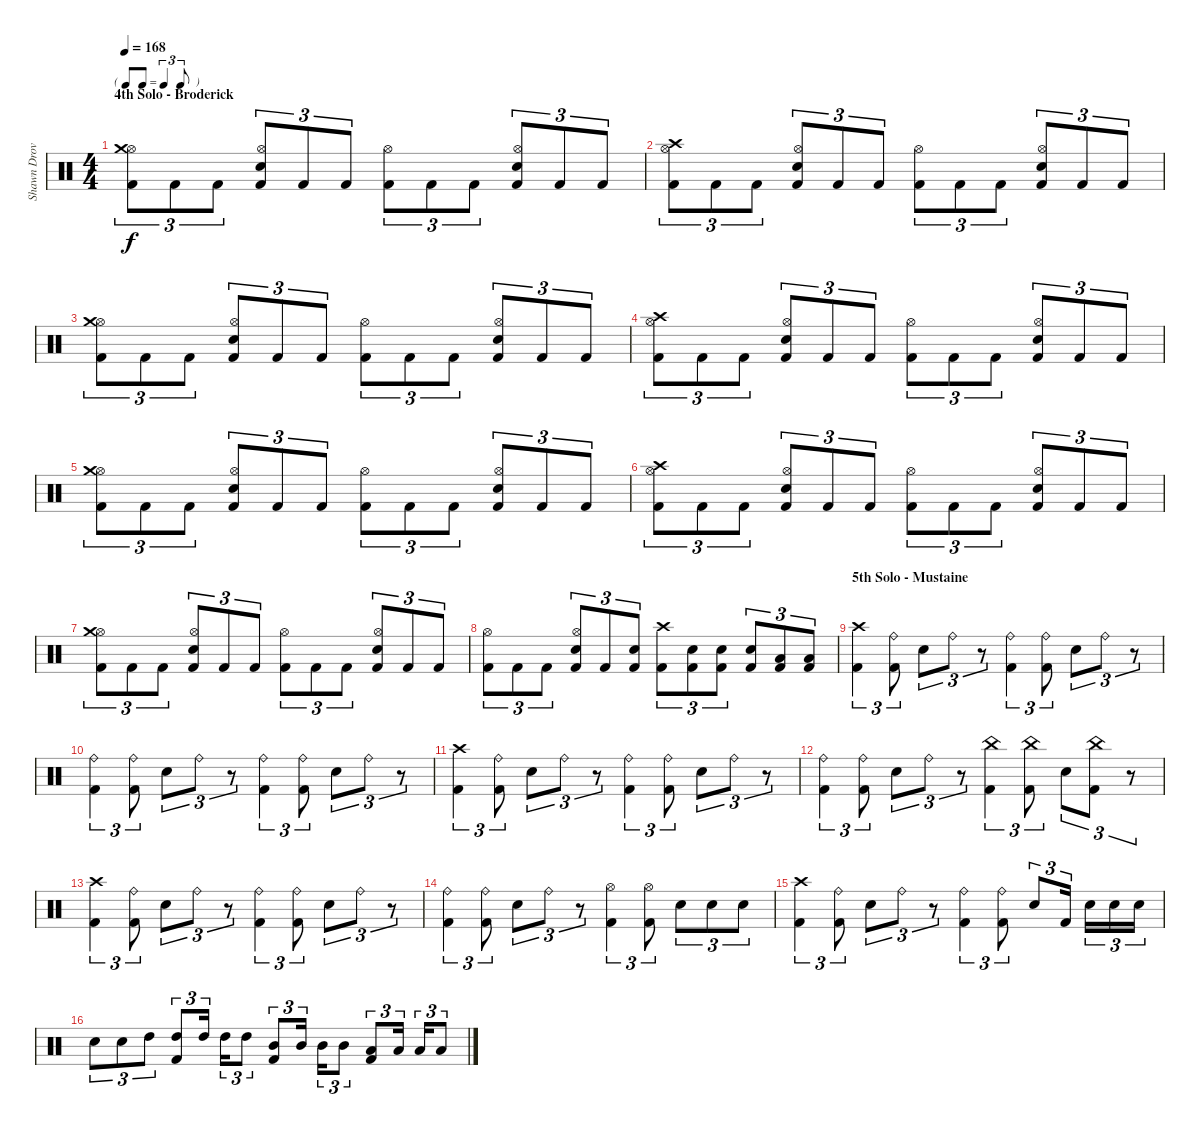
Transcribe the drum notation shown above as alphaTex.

\track ("Shawn Drover" "Shawn Drov") {instrument percussion}
\staff {score}
\articulation defaults
\ts (4 4)
\tf triplet8th
\section ("" "4th Solo - Broderick")
\tempo 168
\clef neutral
\ks c
("Kick (hit) 2" "Hi-Hat (open)" "Crash medium (hit)").8{tu (3 2) dy f} "Kick (hit) 2".8{tu (3 2)} "Kick (hit) 2".8{tu (3 2)} ("Kick (hit) 2" "Snare (hit) 2" "Hi-Hat (open)").8{tu (3 2)} "Kick (hit) 2".8{tu (3 2)} "Kick (hit) 2".8{tu (3 2)} ("Kick (hit) 2" "Hi-Hat (open)").8{tu (3 2)} "Kick (hit) 2".8{tu (3 2)} "Kick (hit) 2".8{tu (3 2)} ("Kick (hit) 2" "Snare (hit) 2" "Hi-Hat (open)").8{tu (3 2)} "Kick (hit) 2".8{tu (3 2)} "Kick (hit) 2".8{tu (3 2)} |
("Kick (hit) 2" "Hi-Hat (open)" "Crash high (hit)").8{tu (3 2)} "Kick (hit) 2".8{tu (3 2)} "Kick (hit) 2".8{tu (3 2)} ("Kick (hit) 2" "Snare (hit) 2" "Hi-Hat (open)").8{tu (3 2)} "Kick (hit) 2".8{tu (3 2)} "Kick (hit) 2".8{tu (3 2)} ("Kick (hit) 2" "Hi-Hat (open)").8{tu (3 2)} "Kick (hit) 2".8{tu (3 2)} "Kick (hit) 2".8{tu (3 2)} ("Kick (hit) 2" "Snare (hit) 2" "Hi-Hat (open)").8{tu (3 2)} "Kick (hit) 2".8{tu (3 2)} "Kick (hit) 2".8{tu (3 2)} |
("Kick (hit) 2" "Hi-Hat (open)" "Crash medium (hit)").8{tu (3 2)} "Kick (hit) 2".8{tu (3 2)} "Kick (hit) 2".8{tu (3 2)} ("Kick (hit) 2" "Snare (hit) 2" "Hi-Hat (open)").8{tu (3 2)} "Kick (hit) 2".8{tu (3 2)} "Kick (hit) 2".8{tu (3 2)} ("Kick (hit) 2" "Hi-Hat (open)").8{tu (3 2)} "Kick (hit) 2".8{tu (3 2)} "Kick (hit) 2".8{tu (3 2)} ("Kick (hit) 2" "Snare (hit) 2" "Hi-Hat (open)").8{tu (3 2)} "Kick (hit) 2".8{tu (3 2)} "Kick (hit) 2".8{tu (3 2)} |
("Kick (hit) 2" "Hi-Hat (open)" "Crash high (hit)").8{tu (3 2)} "Kick (hit) 2".8{tu (3 2)} "Kick (hit) 2".8{tu (3 2)} ("Kick (hit) 2" "Snare (hit) 2" "Hi-Hat (open)").8{tu (3 2)} "Kick (hit) 2".8{tu (3 2)} "Kick (hit) 2".8{tu (3 2)} ("Kick (hit) 2" "Hi-Hat (open)").8{tu (3 2)} "Kick (hit) 2".8{tu (3 2)} "Kick (hit) 2".8{tu (3 2)} ("Kick (hit) 2" "Snare (hit) 2" "Hi-Hat (open)").8{tu (3 2)} "Kick (hit) 2".8{tu (3 2)} "Kick (hit) 2".8{tu (3 2)} |
("Kick (hit) 2" "Hi-Hat (open)" "Crash medium (hit)").8{tu (3 2)} "Kick (hit) 2".8{tu (3 2)} "Kick (hit) 2".8{tu (3 2)} ("Kick (hit) 2" "Snare (hit) 2" "Hi-Hat (open)").8{tu (3 2)} "Kick (hit) 2".8{tu (3 2)} "Kick (hit) 2".8{tu (3 2)} ("Kick (hit) 2" "Hi-Hat (open)").8{tu (3 2)} "Kick (hit) 2".8{tu (3 2)} "Kick (hit) 2".8{tu (3 2)} ("Kick (hit) 2" "Snare (hit) 2" "Hi-Hat (open)").8{tu (3 2)} "Kick (hit) 2".8{tu (3 2)} "Kick (hit) 2".8{tu (3 2)} |
("Kick (hit) 2" "Hi-Hat (open)" "Crash high (hit)").8{tu (3 2)} "Kick (hit) 2".8{tu (3 2)} "Kick (hit) 2".8{tu (3 2)} ("Kick (hit) 2" "Snare (hit) 2" "Hi-Hat (open)").8{tu (3 2)} "Kick (hit) 2".8{tu (3 2)} "Kick (hit) 2".8{tu (3 2)} ("Kick (hit) 2" "Hi-Hat (open)").8{tu (3 2)} "Kick (hit) 2".8{tu (3 2)} "Kick (hit) 2".8{tu (3 2)} ("Kick (hit) 2" "Snare (hit) 2" "Hi-Hat (open)").8{tu (3 2)} "Kick (hit) 2".8{tu (3 2)} "Kick (hit) 2".8{tu (3 2)} |
("Kick (hit) 2" "Hi-Hat (open)" "Crash medium (hit)").8{tu (3 2)} "Kick (hit) 2".8{tu (3 2)} "Kick (hit) 2".8{tu (3 2)} ("Kick (hit) 2" "Snare (hit) 2" "Hi-Hat (open)").8{tu (3 2)} "Kick (hit) 2".8{tu (3 2)} "Kick (hit) 2".8{tu (3 2)} ("Kick (hit) 2" "Hi-Hat (open)").8{tu (3 2)} "Kick (hit) 2".8{tu (3 2)} "Kick (hit) 2".8{tu (3 2)} ("Kick (hit) 2" "Snare (hit) 2" "Hi-Hat (open)").8{tu (3 2)} "Kick (hit) 2".8{tu (3 2)} "Kick (hit) 2".8{tu (3 2)} |
("Kick (hit) 2" "Hi-Hat (open)").8{tu (3 2)} "Kick (hit) 2".8{tu (3 2)} "Kick (hit) 2".8{tu (3 2)} ("Kick (hit) 2" "Snare (hit) 2" "Hi-Hat (open)").8{tu (3 2)} "Kick (hit) 2".8{tu (3 2)} ("Kick (hit) 2" "Snare (hit) 2").8{tu (3 2)} ("Kick (hit) 2" "Crash high (hit)").8{tu (3 2)} ("Kick (hit) 2" "Snare (hit) 2").8{tu (3 2)} ("Kick (hit) 2" "Snare (hit) 2").8{tu (3 2)} ("Kick (hit) 2" "Snare (hit) 2").8{tu (3 2)} ("Kick (hit) 2" "Low Tom (hit)").8{tu (3 2)} ("Kick (hit) 2" "Low Tom (hit)").8{tu (3 2)} |
\section ("" "5th Solo - Mustaine")
("Kick (hit) 2" "Crash high (hit)").4{tu (3 2)} ("Kick (hit) 2" "Ride (bell)").8{tu (3 2)} "Snare (hit) 2".8{tu (3 2)} "Ride (bell)".8{tu (3 2)} r.8{tu (3 2)} ("Kick (hit) 2" "Ride (bell)").4{tu (3 2)} ("Kick (hit) 2" "Ride (bell)").8{tu (3 2)} "Snare (hit) 2".8{tu (3 2)} "Ride (bell)".8{tu (3 2)} r.8{tu (3 2)} |
("Kick (hit) 2" "Ride (bell)").4{tu (3 2)} ("Kick (hit) 2" "Ride (bell)").8{tu (3 2)} "Snare (hit) 2".8{tu (3 2)} "Ride (bell)".8{tu (3 2)} r.8{tu (3 2)} ("Kick (hit) 2" "Ride (bell)").4{tu (3 2)} ("Kick (hit) 2" "Ride (bell)").8{tu (3 2)} "Snare (hit) 2".8{tu (3 2)} "Ride (bell)".8{tu (3 2)} r.8{tu (3 2)} |
("Kick (hit) 2" "Crash high (hit)").4{tu (3 2)} ("Kick (hit) 2" "Ride (bell)").8{tu (3 2)} "Snare (hit) 2".8{tu (3 2)} "Ride (bell)".8{tu (3 2)} r.8{tu (3 2)} ("Kick (hit) 2" "Ride (bell)").4{tu (3 2)} ("Kick (hit) 2" "Ride (bell)").8{tu (3 2)} "Snare (hit) 2".8{tu (3 2)} "Ride (bell)".8{tu (3 2)} r.8{tu (3 2)} |
("Kick (hit) 2" "Ride (bell)").4{tu (3 2)} ("Kick (hit) 2" "Ride (bell)").8{tu (3 2)} "Snare (hit) 2".8{tu (3 2)} "Ride (bell)".8{tu (3 2)} r.8{tu (3 2)} ("Kick (hit) 2" "China (hit)").4{tu (3 2)} ("Kick (hit) 2" "China (hit)").8{tu (3 2)} "Snare (hit) 2".8{tu (3 2)} ("Kick (hit) 2" "China (hit)").8{tu (3 2)} r.8{tu (3 2)} |
("Kick (hit) 2" "Crash high (hit)").4{tu (3 2)} ("Kick (hit) 2" "Ride (bell)").8{tu (3 2)} "Snare (hit) 2".8{tu (3 2)} "Ride (bell)".8{tu (3 2)} r.8{tu (3 2)} ("Kick (hit) 2" "Ride (bell)").4{tu (3 2)} ("Kick (hit) 2" "Ride (bell)").8{tu (3 2)} "Snare (hit) 2".8{tu (3 2)} "Ride (bell)".8{tu (3 2)} r.8{tu (3 2)} |
("Kick (hit) 2" "Ride (bell)").4{tu (3 2)} ("Kick (hit) 2" "Ride (bell)").8{tu (3 2)} "Snare (hit) 2".8{tu (3 2)} "Ride (bell)".8{tu (3 2)} r.8{tu (3 2)} ("Kick (hit) 2" "Hi-Hat (open)").4{tu (3 2)} ("Kick (hit) 2" "Hi-Hat (open)").8{tu (3 2)} "Snare (hit) 2".8{tu (3 2)} "Snare (hit) 2".8{tu (3 2)} "Snare (hit) 2".8{tu (3 2)} |
("Kick (hit) 2" "Crash high (hit)").4{tu (3 2)} ("Kick (hit) 2" "Ride (bell)").8{tu (3 2)} "Snare (hit) 2".8{tu (3 2)} "Ride (bell)".8{tu (3 2)} r.8{tu (3 2)} ("Kick (hit) 2" "Ride (bell)").4{tu (3 2)} ("Kick (hit) 2" "Ride (bell)").8{tu (3 2)} "Snare (hit) 2".8{tu (3 2)} "Kick (hit) 2".16{tu (3 2) beam splitsecondary} "Snare (hit) 2".16{tu (3 2)} "Snare (hit) 2".16{tu (3 2)} "Snare (hit) 2".16{tu (3 2)} |
"Snare (hit) 2".8{tu (3 2)} "Snare (hit) 2".8{tu (3 2)} "High Tom (hit)".8{tu (3 2)} ("Kick (hit) 2" "High Tom (hit)").8{tu (3 2)} "High Tom (hit)".16{tu (3 2) beam splitsecondary} "High Tom (hit)".16{tu (3 2)} "High Tom (hit)".8{tu (3 2)} ("Kick (hit) 2" "Mid Tom (hit)").8{tu (3 2)} "Mid Tom (hit)".16{tu (3 2) beam splitsecondary} "Mid Tom (hit)".16{tu (3 2)} "Mid Tom (hit)".8{tu (3 2)} ("Kick (hit) 2" "Low Tom (hit)").8{tu (3 2)} "Low Tom (hit)".16{tu (3 2) beam splitsecondary} "Low Tom (hit)".16{tu (3 2)} "Low Tom (hit)".8{tu (3 2)}
